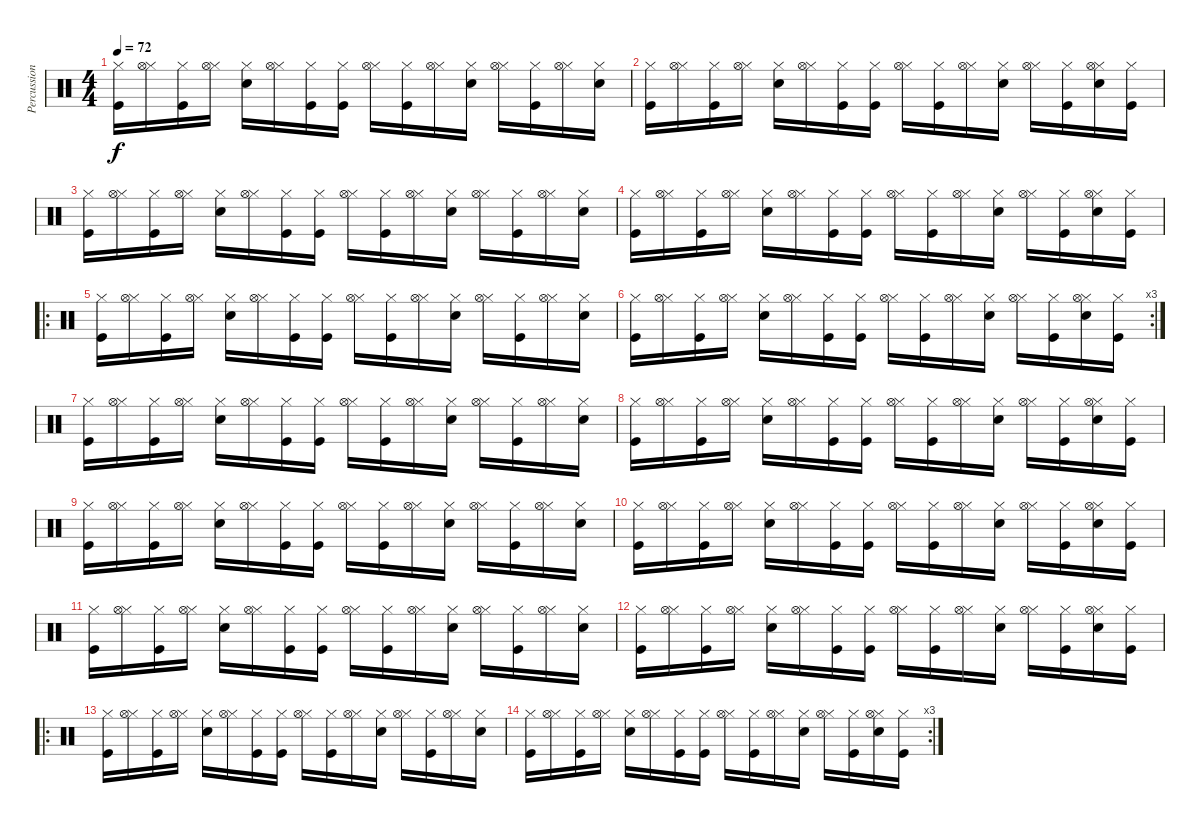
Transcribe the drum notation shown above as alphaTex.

\track ("Percussions" "Percussion") {instrument percussion}
\staff {score}
\articulation defaults
\ts (4 4)
\tempo 72
\clef neutral
\ks c
("Hi-Hat (closed)" "Kick (hit)").16{dy f} ("Hi-Hat (closed)" "Hi-Hat (open)").16 ("Hi-Hat (closed)" "Kick (hit)").16 ("Hi-Hat (closed)" "Hi-Hat (open)").16 ("Hi-Hat (closed)" "Electric Snare (hit)").16 ("Hi-Hat (closed)" "Hi-Hat (open)").16 ("Hi-Hat (closed)" "Kick (hit)").16 ("Hi-Hat (closed)" "Kick (hit)").16 ("Hi-Hat (closed)" "Hi-Hat (open)").16 ("Hi-Hat (closed)" "Kick (hit)").16 ("Hi-Hat (closed)" "Hi-Hat (open)").16 ("Hi-Hat (closed)" "Electric Snare (hit)").16 ("Hi-Hat (closed)" "Hi-Hat (open)").16 ("Hi-Hat (closed)" "Kick (hit)").16 ("Hi-Hat (closed)" "Hi-Hat (open)").16 ("Hi-Hat (closed)" "Electric Snare (hit)").16 |
("Hi-Hat (closed)" "Kick (hit)").16 ("Hi-Hat (closed)" "Hi-Hat (open)").16 ("Hi-Hat (closed)" "Kick (hit)").16 ("Hi-Hat (closed)" "Hi-Hat (open)").16 ("Hi-Hat (closed)" "Electric Snare (hit)").16 ("Hi-Hat (closed)" "Hi-Hat (open)").16 ("Hi-Hat (closed)" "Kick (hit)").16 ("Hi-Hat (closed)" "Kick (hit)").16 ("Hi-Hat (closed)" "Hi-Hat (open)").16 ("Hi-Hat (closed)" "Kick (hit)").16 ("Hi-Hat (closed)" "Hi-Hat (open)").16 ("Hi-Hat (closed)" "Electric Snare (hit)").16 ("Hi-Hat (closed)" "Hi-Hat (open)").16 ("Hi-Hat (closed)" "Kick (hit)").16 ("Hi-Hat (closed)" "Hi-Hat (open)" "Electric Snare (hit)").16 ("Hi-Hat (closed)" "Kick (hit)").16 |
("Hi-Hat (closed)" "Kick (hit)").16 ("Hi-Hat (closed)" "Hi-Hat (open)").16 ("Hi-Hat (closed)" "Kick (hit)").16 ("Hi-Hat (closed)" "Hi-Hat (open)").16 ("Hi-Hat (closed)" "Electric Snare (hit)").16 ("Hi-Hat (closed)" "Hi-Hat (open)").16 ("Hi-Hat (closed)" "Kick (hit)").16 ("Hi-Hat (closed)" "Kick (hit)").16 ("Hi-Hat (closed)" "Hi-Hat (open)").16 ("Hi-Hat (closed)" "Kick (hit)").16 ("Hi-Hat (closed)" "Hi-Hat (open)").16 ("Hi-Hat (closed)" "Electric Snare (hit)").16 ("Hi-Hat (closed)" "Hi-Hat (open)").16 ("Hi-Hat (closed)" "Kick (hit)").16 ("Hi-Hat (closed)" "Hi-Hat (open)").16 ("Hi-Hat (closed)" "Electric Snare (hit)").16 |
("Hi-Hat (closed)" "Kick (hit)").16 ("Hi-Hat (closed)" "Hi-Hat (open)").16 ("Hi-Hat (closed)" "Kick (hit)").16 ("Hi-Hat (closed)" "Hi-Hat (open)").16 ("Hi-Hat (closed)" "Electric Snare (hit)").16 ("Hi-Hat (closed)" "Hi-Hat (open)").16 ("Hi-Hat (closed)" "Kick (hit)").16 ("Hi-Hat (closed)" "Kick (hit)").16 ("Hi-Hat (closed)" "Hi-Hat (open)").16 ("Hi-Hat (closed)" "Kick (hit)").16 ("Hi-Hat (closed)" "Hi-Hat (open)").16 ("Hi-Hat (closed)" "Electric Snare (hit)").16 ("Hi-Hat (closed)" "Hi-Hat (open)").16 ("Hi-Hat (closed)" "Kick (hit)").16 ("Hi-Hat (closed)" "Hi-Hat (open)" "Electric Snare (hit)").16 ("Hi-Hat (closed)" "Kick (hit)").16 |
\ro
("Hi-Hat (closed)" "Kick (hit)").16 ("Hi-Hat (closed)" "Hi-Hat (open)").16 ("Hi-Hat (closed)" "Kick (hit)").16 ("Hi-Hat (closed)" "Hi-Hat (open)").16 ("Hi-Hat (closed)" "Electric Snare (hit)").16 ("Hi-Hat (closed)" "Hi-Hat (open)").16 ("Hi-Hat (closed)" "Kick (hit)").16 ("Hi-Hat (closed)" "Kick (hit)").16 ("Hi-Hat (closed)" "Hi-Hat (open)").16 ("Hi-Hat (closed)" "Kick (hit)").16 ("Hi-Hat (closed)" "Hi-Hat (open)").16 ("Hi-Hat (closed)" "Electric Snare (hit)").16 ("Hi-Hat (closed)" "Hi-Hat (open)").16 ("Hi-Hat (closed)" "Kick (hit)").16 ("Hi-Hat (closed)" "Hi-Hat (open)").16 ("Hi-Hat (closed)" "Electric Snare (hit)").16 |
\rc 3
("Hi-Hat (closed)" "Kick (hit)").16 ("Hi-Hat (closed)" "Hi-Hat (open)").16 ("Hi-Hat (closed)" "Kick (hit)").16 ("Hi-Hat (closed)" "Hi-Hat (open)").16 ("Hi-Hat (closed)" "Electric Snare (hit)").16 ("Hi-Hat (closed)" "Hi-Hat (open)").16 ("Hi-Hat (closed)" "Kick (hit)").16 ("Hi-Hat (closed)" "Kick (hit)").16 ("Hi-Hat (closed)" "Hi-Hat (open)").16 ("Hi-Hat (closed)" "Kick (hit)").16 ("Hi-Hat (closed)" "Hi-Hat (open)").16 ("Hi-Hat (closed)" "Electric Snare (hit)").16 ("Hi-Hat (closed)" "Hi-Hat (open)").16 ("Hi-Hat (closed)" "Kick (hit)").16 ("Hi-Hat (closed)" "Hi-Hat (open)" "Electric Snare (hit)").16 ("Hi-Hat (closed)" "Kick (hit)").16 |
("Hi-Hat (closed)" "Kick (hit)").16 ("Hi-Hat (closed)" "Hi-Hat (open)").16 ("Hi-Hat (closed)" "Kick (hit)").16 ("Hi-Hat (closed)" "Hi-Hat (open)").16 ("Hi-Hat (closed)" "Electric Snare (hit)").16 ("Hi-Hat (closed)" "Hi-Hat (open)").16 ("Hi-Hat (closed)" "Kick (hit)").16 ("Hi-Hat (closed)" "Kick (hit)").16 ("Hi-Hat (closed)" "Hi-Hat (open)").16 ("Hi-Hat (closed)" "Kick (hit)").16 ("Hi-Hat (closed)" "Hi-Hat (open)").16 ("Hi-Hat (closed)" "Electric Snare (hit)").16 ("Hi-Hat (closed)" "Hi-Hat (open)").16 ("Hi-Hat (closed)" "Kick (hit)").16 ("Hi-Hat (closed)" "Hi-Hat (open)").16 ("Hi-Hat (closed)" "Electric Snare (hit)").16 |
("Hi-Hat (closed)" "Kick (hit)").16 ("Hi-Hat (closed)" "Hi-Hat (open)").16 ("Hi-Hat (closed)" "Kick (hit)").16 ("Hi-Hat (closed)" "Hi-Hat (open)").16 ("Hi-Hat (closed)" "Electric Snare (hit)").16 ("Hi-Hat (closed)" "Hi-Hat (open)").16 ("Hi-Hat (closed)" "Kick (hit)").16 ("Hi-Hat (closed)" "Kick (hit)").16 ("Hi-Hat (closed)" "Hi-Hat (open)").16 ("Hi-Hat (closed)" "Kick (hit)").16 ("Hi-Hat (closed)" "Hi-Hat (open)").16 ("Hi-Hat (closed)" "Electric Snare (hit)").16 ("Hi-Hat (closed)" "Hi-Hat (open)").16 ("Hi-Hat (closed)" "Kick (hit)").16 ("Hi-Hat (closed)" "Hi-Hat (open)" "Electric Snare (hit)").16 ("Hi-Hat (closed)" "Kick (hit)").16 |
("Hi-Hat (closed)" "Kick (hit)").16 ("Hi-Hat (closed)" "Hi-Hat (open)").16 ("Hi-Hat (closed)" "Kick (hit)").16 ("Hi-Hat (closed)" "Hi-Hat (open)").16 ("Hi-Hat (closed)" "Electric Snare (hit)").16 ("Hi-Hat (closed)" "Hi-Hat (open)").16 ("Hi-Hat (closed)" "Kick (hit)").16 ("Hi-Hat (closed)" "Kick (hit)").16 ("Hi-Hat (closed)" "Hi-Hat (open)").16 ("Hi-Hat (closed)" "Kick (hit)").16 ("Hi-Hat (closed)" "Hi-Hat (open)").16 ("Hi-Hat (closed)" "Electric Snare (hit)").16 ("Hi-Hat (closed)" "Hi-Hat (open)").16 ("Hi-Hat (closed)" "Kick (hit)").16 ("Hi-Hat (closed)" "Hi-Hat (open)").16 ("Hi-Hat (closed)" "Electric Snare (hit)").16 |
("Hi-Hat (closed)" "Kick (hit)").16 ("Hi-Hat (closed)" "Hi-Hat (open)").16 ("Hi-Hat (closed)" "Kick (hit)").16 ("Hi-Hat (closed)" "Hi-Hat (open)").16 ("Hi-Hat (closed)" "Electric Snare (hit)").16 ("Hi-Hat (closed)" "Hi-Hat (open)").16 ("Hi-Hat (closed)" "Kick (hit)").16 ("Hi-Hat (closed)" "Kick (hit)").16 ("Hi-Hat (closed)" "Hi-Hat (open)").16 ("Hi-Hat (closed)" "Kick (hit)").16 ("Hi-Hat (closed)" "Hi-Hat (open)").16 ("Hi-Hat (closed)" "Electric Snare (hit)").16 ("Hi-Hat (closed)" "Hi-Hat (open)").16 ("Hi-Hat (closed)" "Kick (hit)").16 ("Hi-Hat (closed)" "Hi-Hat (open)" "Electric Snare (hit)").16 ("Hi-Hat (closed)" "Kick (hit)").16 |
("Hi-Hat (closed)" "Kick (hit)").16 ("Hi-Hat (closed)" "Hi-Hat (open)").16 ("Hi-Hat (closed)" "Kick (hit)").16 ("Hi-Hat (closed)" "Hi-Hat (open)").16 ("Hi-Hat (closed)" "Electric Snare (hit)").16 ("Hi-Hat (closed)" "Hi-Hat (open)").16 ("Hi-Hat (closed)" "Kick (hit)").16 ("Hi-Hat (closed)" "Kick (hit)").16 ("Hi-Hat (closed)" "Hi-Hat (open)").16 ("Hi-Hat (closed)" "Kick (hit)").16 ("Hi-Hat (closed)" "Hi-Hat (open)").16 ("Hi-Hat (closed)" "Electric Snare (hit)").16 ("Hi-Hat (closed)" "Hi-Hat (open)").16 ("Hi-Hat (closed)" "Kick (hit)").16 ("Hi-Hat (closed)" "Hi-Hat (open)").16 ("Hi-Hat (closed)" "Electric Snare (hit)").16 |
("Hi-Hat (closed)" "Kick (hit)").16 ("Hi-Hat (closed)" "Hi-Hat (open)").16 ("Hi-Hat (closed)" "Kick (hit)").16 ("Hi-Hat (closed)" "Hi-Hat (open)").16 ("Hi-Hat (closed)" "Electric Snare (hit)").16 ("Hi-Hat (closed)" "Hi-Hat (open)").16 ("Hi-Hat (closed)" "Kick (hit)").16 ("Hi-Hat (closed)" "Kick (hit)").16 ("Hi-Hat (closed)" "Hi-Hat (open)").16 ("Hi-Hat (closed)" "Kick (hit)").16 ("Hi-Hat (closed)" "Hi-Hat (open)").16 ("Hi-Hat (closed)" "Electric Snare (hit)").16 ("Hi-Hat (closed)" "Hi-Hat (open)").16 ("Hi-Hat (closed)" "Kick (hit)").16 ("Hi-Hat (closed)" "Hi-Hat (open)" "Electric Snare (hit)").16 ("Hi-Hat (closed)" "Kick (hit)").16 |
\ro
("Hi-Hat (closed)" "Kick (hit)").16 ("Hi-Hat (closed)" "Hi-Hat (open)").16 ("Hi-Hat (closed)" "Kick (hit)").16 ("Hi-Hat (closed)" "Hi-Hat (open)").16 ("Hi-Hat (closed)" "Electric Snare (hit)").16 ("Hi-Hat (closed)" "Hi-Hat (open)").16 ("Hi-Hat (closed)" "Kick (hit)").16 ("Hi-Hat (closed)" "Kick (hit)").16 ("Hi-Hat (closed)" "Hi-Hat (open)").16 ("Hi-Hat (closed)" "Kick (hit)").16 ("Hi-Hat (closed)" "Hi-Hat (open)").16 ("Hi-Hat (closed)" "Electric Snare (hit)").16 ("Hi-Hat (closed)" "Hi-Hat (open)").16 ("Hi-Hat (closed)" "Kick (hit)").16 ("Hi-Hat (closed)" "Hi-Hat (open)").16 ("Hi-Hat (closed)" "Electric Snare (hit)").16 |
\rc 3
("Hi-Hat (closed)" "Kick (hit)").16 ("Hi-Hat (closed)" "Hi-Hat (open)").16 ("Hi-Hat (closed)" "Kick (hit)").16 ("Hi-Hat (closed)" "Hi-Hat (open)").16 ("Hi-Hat (closed)" "Electric Snare (hit)").16 ("Hi-Hat (closed)" "Hi-Hat (open)").16 ("Hi-Hat (closed)" "Kick (hit)").16 ("Hi-Hat (closed)" "Kick (hit)").16 ("Hi-Hat (closed)" "Hi-Hat (open)").16 ("Hi-Hat (closed)" "Kick (hit)").16 ("Hi-Hat (closed)" "Hi-Hat (open)").16 ("Hi-Hat (closed)" "Electric Snare (hit)").16 ("Hi-Hat (closed)" "Hi-Hat (open)").16 ("Hi-Hat (closed)" "Kick (hit)").16 ("Hi-Hat (closed)" "Hi-Hat (open)" "Electric Snare (hit)").16 ("Hi-Hat (closed)" "Kick (hit)").16
